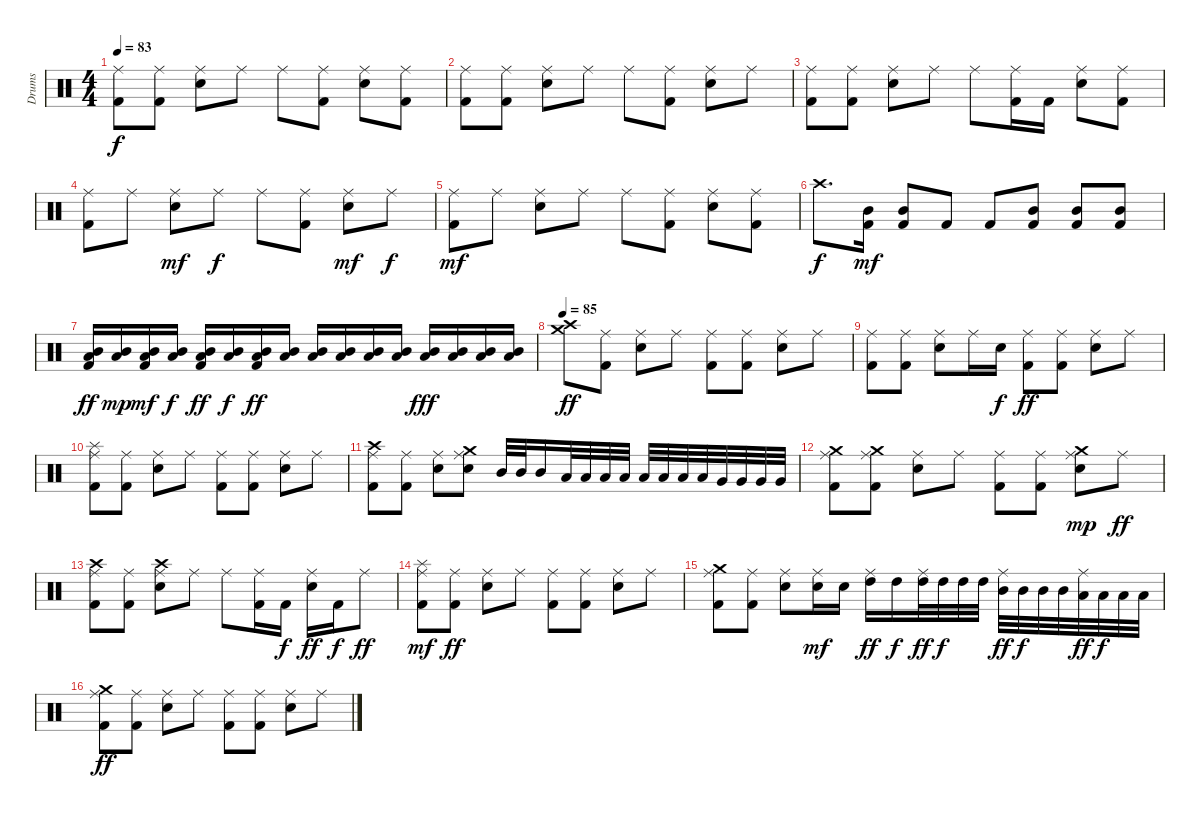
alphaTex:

\track ("Drums" "Drums") {instrument percussion}
\staff {score}
\articulation defaults
\ts (4 4)
\tempo 83
\clef neutral
\ks c
("Ride (middle)" "Kick (hit) 2").8{dy f} ("Ride (middle)" "Kick (hit) 2").8 ("Ride (middle)" "Electric Snare (hit)").8 "Ride (middle)".8 "Ride (middle)".8 ("Ride (middle)" "Kick (hit) 2").8 ("Ride (middle)" "Electric Snare (hit)").8 ("Ride (middle)" "Kick (hit) 2").8 |
("Ride (middle)" "Kick (hit) 2").8 ("Ride (middle)" "Kick (hit) 2").8 ("Ride (middle)" "Electric Snare (hit)").8 "Ride (middle)".8 "Ride (middle)".8 ("Ride (middle)" "Kick (hit) 2").8 ("Ride (middle)" "Electric Snare (hit)").8 "Ride (middle)".8 |
("Ride (middle)" "Kick (hit) 2").8 ("Ride (middle)" "Kick (hit) 2").8 ("Ride (middle)" "Electric Snare (hit)").8 "Ride (middle)".8 "Ride (middle)".8 ("Ride (middle)" "Kick (hit) 2").16 "Kick (hit) 2".16 ("Ride (middle)" "Electric Snare (hit)").8 ("Ride (middle)" "Kick (hit) 2").8 |
("Ride (middle)" "Kick (hit) 2").8 "Ride (middle)".8 ("Ride (middle)" "Electric Snare (hit)").8{dy mf} "Ride (middle)".8{dy f} "Ride (middle)".8 ("Ride (middle)" "Kick (hit) 2").8 ("Ride (middle)" "Electric Snare (hit)").8{dy mf} "Ride (middle)".8{dy f} |
("Ride (middle)" "Kick (hit) 2").8{dy mf} "Ride (middle)".8 ("Ride (middle)" "Electric Snare (hit)").8 "Ride (middle)".8 "Ride (middle)".8 ("Ride (middle)" "Kick (hit) 2").8 ("Ride (middle)" "Electric Snare (hit)").8 ("Ride (middle)" "Kick (hit) 2").8 |
"Crash high (hit)".8{d dy f} ("Kick (hit) 2" "Mid Tom (hit)").16{dy mf} ("Kick (hit) 2" "Mid Tom (hit)").8 "Kick (hit) 2".8 "Kick (hit) 2".8 ("Kick (hit) 2" "Mid Tom (hit)").8 ("Kick (hit) 2" "Mid Tom (hit)").8 ("Kick (hit) 2" "Mid Tom (hit)").8 |
("Kick (hit) 2" "Low Tom (hit)" "Mid Tom (hit)").16{dy ff volume 12} ("Low Tom (hit)" "Mid Tom (hit)").16{dy mp} ("Kick (hit) 2" "Low Tom (hit)" "Mid Tom (hit)").16{dy mf} ("Low Tom (hit)" "Mid Tom (hit)").16{dy f} ("Kick (hit) 2" "Low Tom (hit)" "Mid Tom (hit)").16{dy ff} ("Low Tom (hit)" "Mid Tom (hit)").16{dy f} ("Kick (hit) 2" "Low Tom (hit)" "Mid Tom (hit)").16{dy ff} ("Low Tom (hit)" "Mid Tom (hit)").16 ("Low Tom (hit)" "Mid Tom (hit)").16 ("Low Tom (hit)" "Mid Tom (hit)").16 ("Low Tom (hit)" "Mid Tom (hit)").16 ("Low Tom (hit)" "Mid Tom (hit)").16 ("Low Tom (hit)" "Mid Tom (hit)").16{dy fff} ("Low Tom (hit)" "Mid Tom (hit)").16 ("Low Tom (hit)" "Mid Tom (hit)").16 ("Low Tom (hit)" "Mid Tom (hit)").16 |
\tempo 85
("Crash high (hit)" "Crash medium (hit)").8{dy ff volume 14} ("Ride (middle)" "Kick (hit) 2").8 ("Ride (middle)" "Electric Snare (hit)").8 "Ride (middle)".8 ("Ride (middle)" "Kick (hit) 2").8 ("Ride (middle)" "Kick (hit) 2").8 ("Ride (middle)" "Electric Snare (hit)").8 "Ride (middle)".8 |
("Ride (middle)" "Kick (hit) 2").8 ("Ride (middle)" "Kick (hit) 2").8 ("Ride (middle)" "Electric Snare (hit)").8 "Ride (middle)".16 "Electric Snare (hit)".16{dy f} ("Ride (middle)" "Kick (hit) 2").8{dy ff} ("Ride (middle)" "Kick (hit) 2").8 ("Ride (middle)" "Electric Snare (hit)").8 "Ride (middle)".8 |
("Ride (middle)" "Splash (hit)" "Kick (hit) 2").8 ("Ride (middle)" "Kick (hit) 2").8 ("Ride (middle)" "Electric Snare (hit)").8 "Ride (middle)".8 ("Ride (middle)" "Kick (hit) 2").8 ("Ride (middle)" "Kick (hit) 2").8 ("Ride (middle)" "Electric Snare (hit)").8 "Ride (middle)".8 |
("Ride (middle)" "Crash high (hit)" "Kick (hit) 2").8 ("Ride (middle)" "Kick (hit) 2").8 ("Ride (middle)" "Electric Snare (hit)").8 ("Ride (middle)" "Crash medium (hit)" "Electric Snare (hit)").8 "Mid Tom (hit)".32 "Mid Tom (hit)".32 "Mid Tom (hit)".16 "Low Tom (hit)".32 "Low Tom (hit)".32 "Low Tom (hit)".32 "Low Tom (hit)".32 "Low Tom (hit)".32 "Low Tom (hit)".32 "Low Tom (hit)".32 "Low Tom (hit)".32 "Very Low Tom (hit)".32 "Very Low Tom (hit)".32 "Very Low Tom (hit)".32 "Very Low Tom (hit)".32 |
("Crash medium (hit)" "Ride (middle)" "Kick (hit) 2").8 ("Crash medium (hit)" "Ride (middle)" "Kick (hit) 2").8 ("Ride (middle)" "Electric Snare (hit)").8 "Ride (middle)".8 ("Ride (middle)" "Kick (hit) 2").8 ("Ride (middle)" "Kick (hit) 2").8 ("Ride (middle)" "Electric Snare (hit)" "Crash medium (hit)").8{dy mp} "Ride (middle)".8{dy ff} |
("Crash high (hit)" "Ride (middle)" "Kick (hit) 2").8 ("Ride (middle)" "Kick (hit) 2").8 ("Crash high (hit)" "Ride (middle)" "Electric Snare (hit)").8 "Ride (middle)".8 "Ride (middle)".8 ("Ride (middle)" "Kick (hit) 2").16 "Kick (hit) 2".16{dy f} ("Ride (middle)" "Electric Snare (hit)").16{dy ff} "Kick (hit) 2".16{dy f} "Ride (middle)".8{dy ff} |
("Ride (middle)" "Splash (hit)" "Kick (hit) 2").8{dy mf} ("Ride (middle)" "Kick (hit) 2").8{dy ff} ("Ride (middle)" "Electric Snare (hit)").8 "Ride (middle)".8 ("Ride (middle)" "Kick (hit) 2").8 ("Ride (middle)" "Kick (hit) 2").8 ("Ride (middle)" "Electric Snare (hit)").8 "Ride (middle)".8 |
("Ride (middle)" "Kick (hit) 2" "Crash medium (hit)").8 ("Ride (middle)" "Kick (hit) 2").8 ("Ride (middle)" "Electric Snare (hit)").8 ("Ride (middle)" "Electric Snare (hit)").16{dy mf} "Electric Snare (hit)".16 ("Ride (middle)" "High Tom (hit)").16{dy ff} "High Tom (hit)".16{dy f} ("Ride (middle)" "High Tom (hit)").32{dy ff} "High Tom (hit)".32{dy f} "High Tom (hit)".32 "High Tom (hit)".32 ("Ride (middle)" "Mid Tom (hit)").32{dy ff} "Mid Tom (hit)".32{dy f} "Mid Tom (hit)".32 "Mid Tom (hit)".32 ("Ride (middle)" "Low Tom (hit)").32{dy ff} "Low Tom (hit)".32{dy f} "Low Tom (hit)".32 "Low Tom (hit)".32 |
("Ride (middle)" "Crash medium (hit)" "Kick (hit) 2").8{dy ff} ("Ride (middle)" "Kick (hit) 2").8 ("Ride (middle)" "Electric Snare (hit)").8 "Ride (middle)".8 ("Ride (middle)" "Kick (hit) 2").8 ("Ride (middle)" "Kick (hit) 2").8 ("Ride (middle)" "Electric Snare (hit)").8 "Ride (middle)".8
